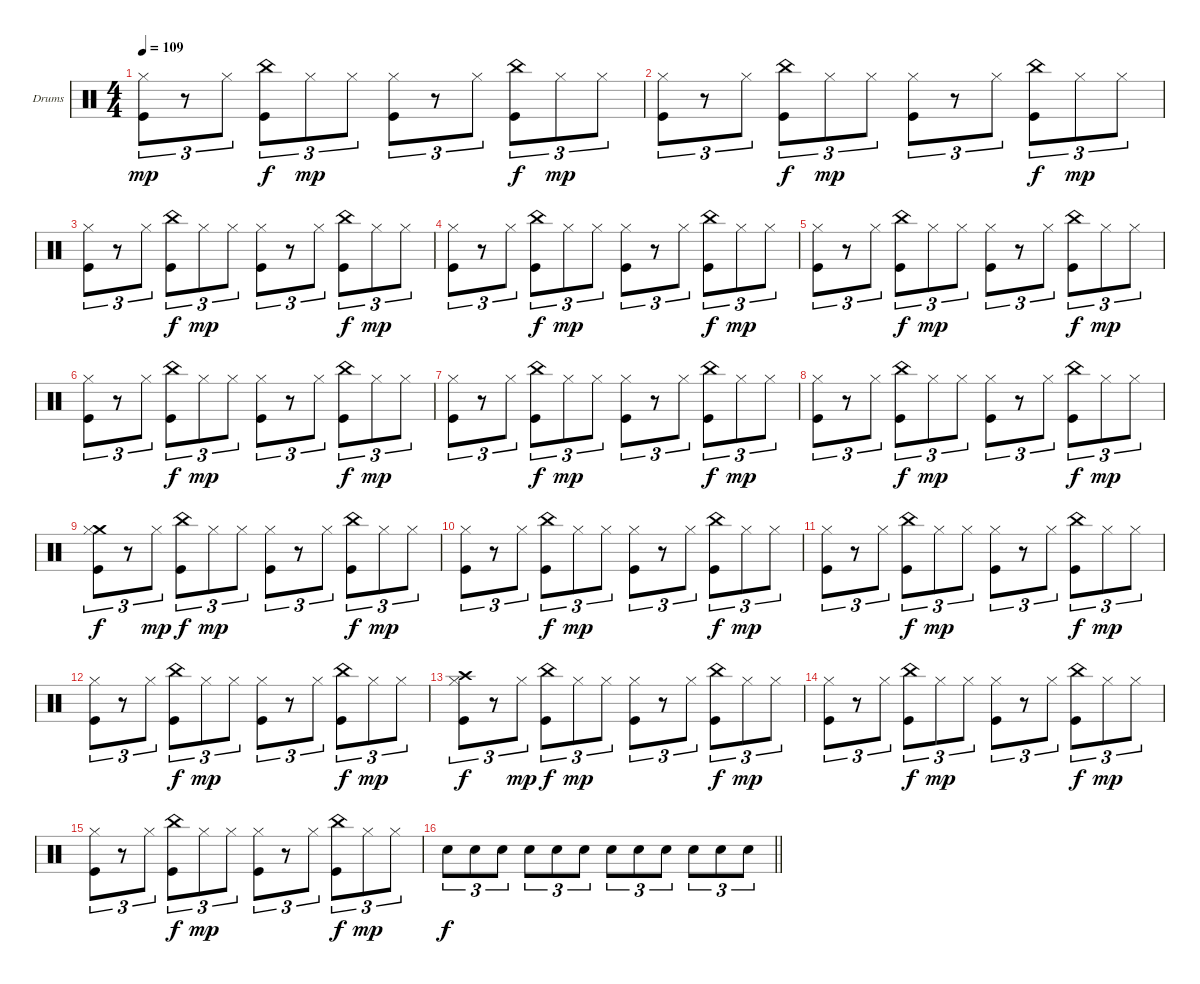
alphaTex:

\bracketExtendMode groupsimilarinstruments
\firstSystemTrackNameOrientation horizontal
\otherSystemsTrackNameOrientation horizontal
\track ("Drumkit" "Drums") {instrument percussion}
\staff {score}
\articulation defaults
\ts (4 4)
\tempo 109
\clef neutral
\ks c
("Hi-Hat (closed)" "Kick (hit)").8{tu (3 2) dy mp} r.8{tu (3 2)} "Hi-Hat (closed)".8{tu (3 2)} ("China (hit)" "Kick (hit)").8{tu (3 2) dy f} "Hi-Hat (closed)".8{tu (3 2) dy mp} "Hi-Hat (closed)".8{tu (3 2)} ("Hi-Hat (closed)" "Kick (hit)").8{tu (3 2)} r.8{tu (3 2)} "Hi-Hat (closed)".8{tu (3 2)} ("China (hit)" "Kick (hit)").8{tu (3 2) dy f} "Hi-Hat (closed)".8{tu (3 2) dy mp} "Hi-Hat (closed)".8{tu (3 2)} |
("Hi-Hat (closed)" "Kick (hit)").8{tu (3 2)} r.8{tu (3 2)} "Hi-Hat (closed)".8{tu (3 2)} ("China (hit)" "Kick (hit)").8{tu (3 2) dy f} "Hi-Hat (closed)".8{tu (3 2) dy mp} "Hi-Hat (closed)".8{tu (3 2)} ("Hi-Hat (closed)" "Kick (hit)").8{tu (3 2)} r.8{tu (3 2)} "Hi-Hat (closed)".8{tu (3 2)} ("China (hit)" "Kick (hit)").8{tu (3 2) dy f} "Hi-Hat (closed)".8{tu (3 2) dy mp} "Hi-Hat (closed)".8{tu (3 2)} |
("Hi-Hat (closed)" "Kick (hit)").8{tu (3 2)} r.8{tu (3 2)} "Hi-Hat (closed)".8{tu (3 2)} ("China (hit)" "Kick (hit)").8{tu (3 2) dy f} "Hi-Hat (closed)".8{tu (3 2) dy mp} "Hi-Hat (closed)".8{tu (3 2)} ("Hi-Hat (closed)" "Kick (hit)").8{tu (3 2)} r.8{tu (3 2)} "Hi-Hat (closed)".8{tu (3 2)} ("China (hit)" "Kick (hit)").8{tu (3 2) dy f} "Hi-Hat (closed)".8{tu (3 2) dy mp} "Hi-Hat (closed)".8{tu (3 2)} |
("Hi-Hat (closed)" "Kick (hit)").8{tu (3 2)} r.8{tu (3 2)} "Hi-Hat (closed)".8{tu (3 2)} ("China (hit)" "Kick (hit)").8{tu (3 2) dy f} "Hi-Hat (closed)".8{tu (3 2) dy mp} "Hi-Hat (closed)".8{tu (3 2)} ("Hi-Hat (closed)" "Kick (hit)").8{tu (3 2)} r.8{tu (3 2)} "Hi-Hat (closed)".8{tu (3 2)} ("China (hit)" "Kick (hit)").8{tu (3 2) dy f} "Hi-Hat (closed)".8{tu (3 2) dy mp} "Hi-Hat (closed)".8{tu (3 2)} |
("Hi-Hat (closed)" "Kick (hit)").8{tu (3 2)} r.8{tu (3 2)} "Hi-Hat (closed)".8{tu (3 2)} ("China (hit)" "Kick (hit)").8{tu (3 2) dy f} "Hi-Hat (closed)".8{tu (3 2) dy mp} "Hi-Hat (closed)".8{tu (3 2)} ("Hi-Hat (closed)" "Kick (hit)").8{tu (3 2)} r.8{tu (3 2)} "Hi-Hat (closed)".8{tu (3 2)} ("China (hit)" "Kick (hit)").8{tu (3 2) dy f} "Hi-Hat (closed)".8{tu (3 2) dy mp} "Hi-Hat (closed)".8{tu (3 2)} |
("Hi-Hat (closed)" "Kick (hit)").8{tu (3 2)} r.8{tu (3 2)} "Hi-Hat (closed)".8{tu (3 2)} ("China (hit)" "Kick (hit)").8{tu (3 2) dy f} "Hi-Hat (closed)".8{tu (3 2) dy mp} "Hi-Hat (closed)".8{tu (3 2)} ("Hi-Hat (closed)" "Kick (hit)").8{tu (3 2)} r.8{tu (3 2)} "Hi-Hat (closed)".8{tu (3 2)} ("China (hit)" "Kick (hit)").8{tu (3 2) dy f} "Hi-Hat (closed)".8{tu (3 2) dy mp} "Hi-Hat (closed)".8{tu (3 2)} |
("Hi-Hat (closed)" "Kick (hit)").8{tu (3 2)} r.8{tu (3 2)} "Hi-Hat (closed)".8{tu (3 2)} ("China (hit)" "Kick (hit)").8{tu (3 2) dy f} "Hi-Hat (closed)".8{tu (3 2) dy mp} "Hi-Hat (closed)".8{tu (3 2)} ("Hi-Hat (closed)" "Kick (hit)").8{tu (3 2)} r.8{tu (3 2)} "Hi-Hat (closed)".8{tu (3 2)} ("China (hit)" "Kick (hit)").8{tu (3 2) dy f} "Hi-Hat (closed)".8{tu (3 2) dy mp} "Hi-Hat (closed)".8{tu (3 2)} |
("Hi-Hat (closed)" "Kick (hit)").8{tu (3 2)} r.8{tu (3 2)} "Hi-Hat (closed)".8{tu (3 2)} ("China (hit)" "Kick (hit)").8{tu (3 2) dy f} "Hi-Hat (closed)".8{tu (3 2) dy mp} "Hi-Hat (closed)".8{tu (3 2)} ("Hi-Hat (closed)" "Kick (hit)").8{tu (3 2)} r.8{tu (3 2)} "Hi-Hat (closed)".8{tu (3 2)} ("China (hit)" "Kick (hit)").8{tu (3 2) dy f} "Hi-Hat (closed)".8{tu (3 2) dy mp} "Hi-Hat (closed)".8{tu (3 2)} |
("Crash medium (hit)" "Hi-Hat (closed)" "Kick (hit)").8{tu (3 2) dy f} r.8{tu (3 2)} "Hi-Hat (closed)".8{tu (3 2) dy mp} ("China (hit)" "Kick (hit)").8{tu (3 2) dy f} "Hi-Hat (closed)".8{tu (3 2) dy mp} "Hi-Hat (closed)".8{tu (3 2)} ("Hi-Hat (closed)" "Kick (hit)").8{tu (3 2)} r.8{tu (3 2)} "Hi-Hat (closed)".8{tu (3 2)} ("China (hit)" "Kick (hit)").8{tu (3 2) dy f} "Hi-Hat (closed)".8{tu (3 2) dy mp} "Hi-Hat (closed)".8{tu (3 2)} |
("Hi-Hat (closed)" "Kick (hit)").8{tu (3 2)} r.8{tu (3 2)} "Hi-Hat (closed)".8{tu (3 2)} ("China (hit)" "Kick (hit)").8{tu (3 2) dy f} "Hi-Hat (closed)".8{tu (3 2) dy mp} "Hi-Hat (closed)".8{tu (3 2)} ("Hi-Hat (closed)" "Kick (hit)").8{tu (3 2)} r.8{tu (3 2)} "Hi-Hat (closed)".8{tu (3 2)} ("China (hit)" "Kick (hit)").8{tu (3 2) dy f} "Hi-Hat (closed)".8{tu (3 2) dy mp} "Hi-Hat (closed)".8{tu (3 2)} |
("Hi-Hat (closed)" "Kick (hit)").8{tu (3 2)} r.8{tu (3 2)} "Hi-Hat (closed)".8{tu (3 2)} ("China (hit)" "Kick (hit)").8{tu (3 2) dy f} "Hi-Hat (closed)".8{tu (3 2) dy mp} "Hi-Hat (closed)".8{tu (3 2)} ("Hi-Hat (closed)" "Kick (hit)").8{tu (3 2)} r.8{tu (3 2)} "Hi-Hat (closed)".8{tu (3 2)} ("China (hit)" "Kick (hit)").8{tu (3 2) dy f} "Hi-Hat (closed)".8{tu (3 2) dy mp} "Hi-Hat (closed)".8{tu (3 2)} |
("Hi-Hat (closed)" "Kick (hit)").8{tu (3 2)} r.8{tu (3 2)} "Hi-Hat (closed)".8{tu (3 2)} ("China (hit)" "Kick (hit)").8{tu (3 2) dy f} "Hi-Hat (closed)".8{tu (3 2) dy mp} "Hi-Hat (closed)".8{tu (3 2)} ("Hi-Hat (closed)" "Kick (hit)").8{tu (3 2)} r.8{tu (3 2)} "Hi-Hat (closed)".8{tu (3 2)} ("China (hit)" "Kick (hit)").8{tu (3 2) dy f} "Hi-Hat (closed)".8{tu (3 2) dy mp} "Hi-Hat (closed)".8{tu (3 2)} |
("Crash high (hit)" "Hi-Hat (closed)" "Kick (hit)").8{tu (3 2) dy f} r.8{tu (3 2)} "Hi-Hat (closed)".8{tu (3 2) dy mp} ("China (hit)" "Kick (hit)").8{tu (3 2) dy f} "Hi-Hat (closed)".8{tu (3 2) dy mp} "Hi-Hat (closed)".8{tu (3 2)} ("Hi-Hat (closed)" "Kick (hit)").8{tu (3 2)} r.8{tu (3 2)} "Hi-Hat (closed)".8{tu (3 2)} ("China (hit)" "Kick (hit)").8{tu (3 2) dy f} "Hi-Hat (closed)".8{tu (3 2) dy mp} "Hi-Hat (closed)".8{tu (3 2)} |
("Hi-Hat (closed)" "Kick (hit)").8{tu (3 2)} r.8{tu (3 2)} "Hi-Hat (closed)".8{tu (3 2)} ("China (hit)" "Kick (hit)").8{tu (3 2) dy f} "Hi-Hat (closed)".8{tu (3 2) dy mp} "Hi-Hat (closed)".8{tu (3 2)} ("Hi-Hat (closed)" "Kick (hit)").8{tu (3 2)} r.8{tu (3 2)} "Hi-Hat (closed)".8{tu (3 2)} ("China (hit)" "Kick (hit)").8{tu (3 2) dy f} "Hi-Hat (closed)".8{tu (3 2) dy mp} "Hi-Hat (closed)".8{tu (3 2)} |
("Hi-Hat (closed)" "Kick (hit)").8{tu (3 2)} r.8{tu (3 2)} "Hi-Hat (closed)".8{tu (3 2)} ("China (hit)" "Kick (hit)").8{tu (3 2) dy f} "Hi-Hat (closed)".8{tu (3 2) dy mp} "Hi-Hat (closed)".8{tu (3 2)} ("Hi-Hat (closed)" "Kick (hit)").8{tu (3 2)} r.8{tu (3 2)} "Hi-Hat (closed)".8{tu (3 2)} ("China (hit)" "Kick (hit)").8{tu (3 2) dy f} "Hi-Hat (closed)".8{tu (3 2) dy mp} "Hi-Hat (closed)".8{tu (3 2)} |
\barLineRight lightlight "Snare (hit) 2".8{tu (3 2) dy f} "Snare (hit) 2".8{tu (3 2)} "Snare (hit) 2".8{tu (3 2)} "Snare (hit) 2".8{tu (3 2)} "Snare (hit) 2".8{tu (3 2)} "Snare (hit) 2".8{tu (3 2)} "Snare (hit) 2".8{tu (3 2)} "Snare (hit) 2".8{tu (3 2)} "Snare (hit) 2".8{tu (3 2)} "Snare (hit) 2".8{tu (3 2)} "Snare (hit) 2".8{tu (3 2)} "Snare (hit) 2".8{tu (3 2)}
